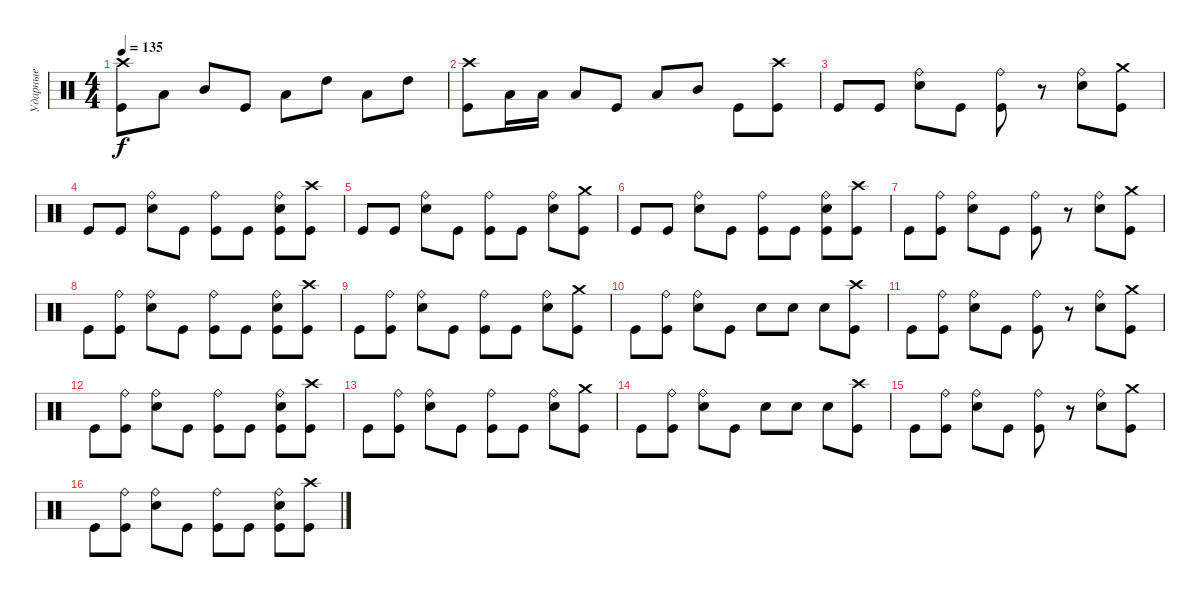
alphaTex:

\track ("Ударные" "Ударные") {instrument percussion}
\staff {score}
\articulation defaults
\ts (4 4)
\tempo 135
\clef neutral
\ks c
("Crash high (hit)" "Kick (hit)").8{dy f} "Low Tom (hit)".8 "Mid Tom (hit)".8 "Kick (hit)".8 "Low Tom (hit)".8 "High Tom (hit)".8 "Low Tom (hit)".8 "High Tom (hit)".8 |
("Crash high (hit)" "Kick (hit)").8 "Low Tom (hit)".16 "Low Tom (hit)".16 "Low Tom (hit)".8 "Kick (hit)".8 "Low Tom (hit)".8 "Mid Tom (hit)".8 "Kick (hit)".8 ("Crash high (hit)" "Kick (hit)").8 |
"Kick (hit)".8 "Kick (hit)".8 ("Ride (bell)" "Electric Snare (hit)").8 "Kick (hit)".8 ("Ride (bell)" "Kick (hit)").8 r.8 ("Ride (bell)" "Electric Snare (hit)").8 ("Crash medium (hit)" "Kick (hit)").8 |
"Kick (hit)".8 "Kick (hit)".8 ("Ride (bell)" "Electric Snare (hit)").8 "Kick (hit)".8 ("Ride (bell)" "Kick (hit)").8 "Kick (hit)".8 ("Ride (bell)" "Electric Snare (hit)" "Kick (hit)").8 ("Crash high (hit)" "Kick (hit)").8 |
"Kick (hit)".8 "Kick (hit)".8 ("Ride (bell)" "Electric Snare (hit)").8 "Kick (hit)".8 ("Ride (bell)" "Kick (hit)").8 "Kick (hit)".8 ("Ride (bell)" "Electric Snare (hit)").8 ("Crash medium (hit)" "Kick (hit)").8 |
"Kick (hit)".8 "Kick (hit)".8 ("Ride (bell)" "Electric Snare (hit)").8 "Kick (hit)".8 ("Ride (bell)" "Kick (hit)").8 "Kick (hit)".8 ("Ride (bell)" "Electric Snare (hit)" "Kick (hit)").8 ("Crash high (hit)" "Kick (hit)").8 |
"Kick (hit)".8 ("Ride (bell)" "Kick (hit)").8 ("Ride (bell)" "Electric Snare (hit)").8 "Kick (hit)".8 ("Ride (bell)" "Kick (hit)").8 r.8 ("Ride (bell)" "Electric Snare (hit)").8 ("Crash medium (hit)" "Kick (hit)").8 |
"Kick (hit)".8 ("Ride (bell)" "Kick (hit)").8 ("Ride (bell)" "Electric Snare (hit)").8 "Kick (hit)".8 ("Ride (bell)" "Kick (hit)").8 "Kick (hit)".8 ("Ride (bell)" "Electric Snare (hit)" "Kick (hit)").8 ("Crash high (hit)" "Kick (hit)").8 |
"Kick (hit)".8 ("Ride (bell)" "Kick (hit)").8 ("Ride (bell)" "Electric Snare (hit)").8 "Kick (hit)".8 ("Ride (bell)" "Kick (hit)").8 "Kick (hit)".8 ("Ride (bell)" "Electric Snare (hit)").8 ("Crash medium (hit)" "Kick (hit)").8 |
"Kick (hit)".8 ("Ride (bell)" "Kick (hit)").8 ("Ride (bell)" "Electric Snare (hit)").8 "Kick (hit)".8 "Electric Snare (hit)".8 "Electric Snare (hit)".8 "Electric Snare (hit)".8 ("Crash high (hit)" "Kick (hit)").8 |
"Kick (hit)".8 ("Ride (bell)" "Kick (hit)").8 ("Ride (bell)" "Electric Snare (hit)").8 "Kick (hit)".8 ("Ride (bell)" "Kick (hit)").8 r.8 ("Ride (bell)" "Electric Snare (hit)").8 ("Crash medium (hit)" "Kick (hit)").8 |
"Kick (hit)".8 ("Ride (bell)" "Kick (hit)").8 ("Ride (bell)" "Electric Snare (hit)").8 "Kick (hit)".8 ("Ride (bell)" "Kick (hit)").8 "Kick (hit)".8 ("Ride (bell)" "Electric Snare (hit)" "Kick (hit)").8 ("Crash high (hit)" "Kick (hit)").8 |
"Kick (hit)".8 ("Ride (bell)" "Kick (hit)").8 ("Ride (bell)" "Electric Snare (hit)").8 "Kick (hit)".8 ("Ride (bell)" "Kick (hit)").8 "Kick (hit)".8 ("Ride (bell)" "Electric Snare (hit)").8 ("Crash medium (hit)" "Kick (hit)").8 |
"Kick (hit)".8 ("Ride (bell)" "Kick (hit)").8 ("Ride (bell)" "Electric Snare (hit)").8 "Kick (hit)".8 "Electric Snare (hit)".8 "Electric Snare (hit)".8 "Electric Snare (hit)".8 ("Crash high (hit)" "Kick (hit)").8 |
"Kick (hit)".8 ("Ride (bell)" "Kick (hit)").8 ("Ride (bell)" "Electric Snare (hit)").8 "Kick (hit)".8 ("Ride (bell)" "Kick (hit)").8 r.8 ("Ride (bell)" "Electric Snare (hit)").8 ("Crash medium (hit)" "Kick (hit)").8 |
"Kick (hit)".8 ("Ride (bell)" "Kick (hit)").8 ("Ride (bell)" "Electric Snare (hit)").8 "Kick (hit)".8 ("Ride (bell)" "Kick (hit)").8 "Kick (hit)".8 ("Ride (bell)" "Electric Snare (hit)" "Kick (hit)").8 ("Crash high (hit)" "Kick (hit)").8
